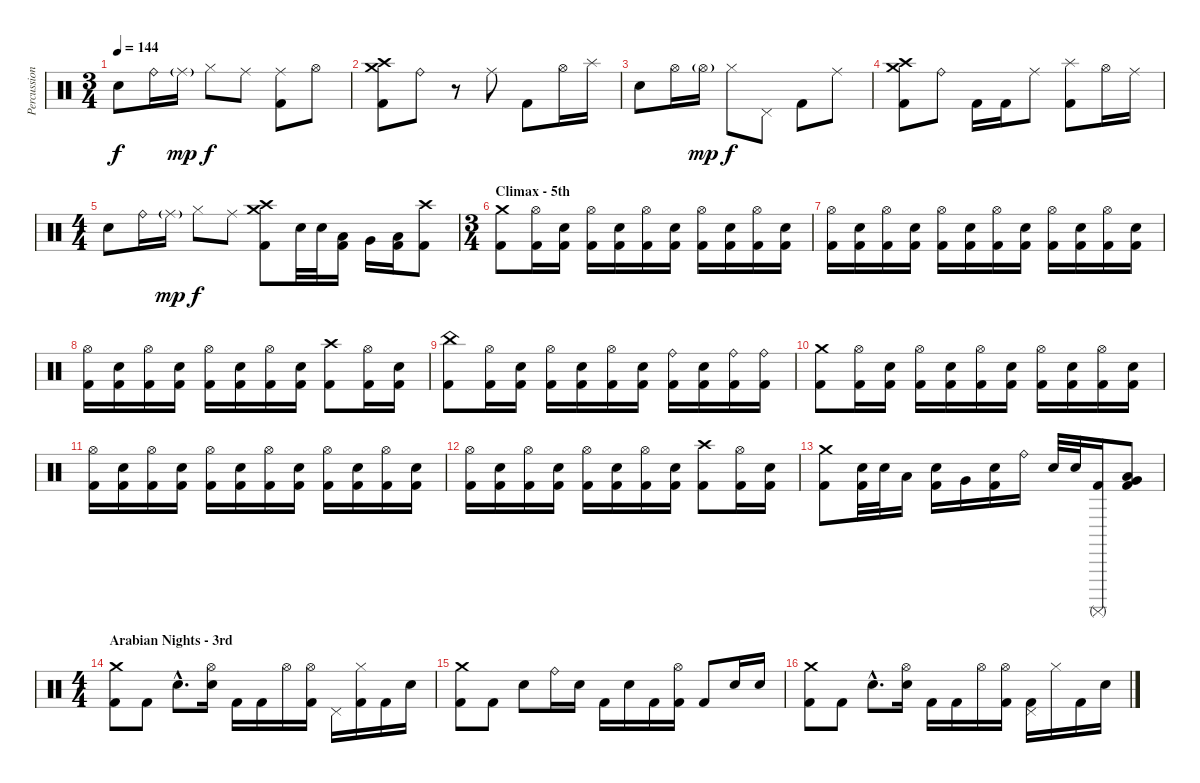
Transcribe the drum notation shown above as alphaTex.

\track ("Percussion" "Percussion") {instrument percussion}
\staff {score}
\articulation defaults
\ts (3 4)
\tempo 144
\clef neutral
\ks c "Electric Snare (hit)".8{dy f} "Ride (bell)".16 "Ride (middle)"{g}.16{dy mp} "Hi-Hat (closed)".8{dy f} "Ride (middle)".8
("Ride (middle)" "Kick (hit) 2").8 "Hi-Hat (open)".8 |
("Crash high (hit)" "Crash medium (hit)" "Kick (hit) 2").8 "Ride (bell)".8 r.8 "Ride (middle)".8 "Kick (hit) 2".8 "Hi-Hat (open)".16 "Splash (hit)".16 |
"Electric Snare (hit)".8 "Hi-Hat (open)".16 "Hi-Hat (open)"{g}.16{dy mp} "Hi-Hat (closed)".8{dy f} "Pedal Hi-Hat (hit)".8 "Kick (hit) 2".8 "Ride (middle)".8 |
("Crash high (hit)" "Crash medium (hit)" "Kick (hit) 2").8 "Ride (bell)".8 "Kick (hit) 2".16 "Kick (hit) 2".16 "Ride (middle)".8 ("Splash (hit)" "Kick (hit) 2").8 "Hi-Hat (open)".16 "Ride (middle)".16 |
\ts (4 4)
"Electric Snare (hit)".8 "Ride (bell)".16 "Ride (middle)"{g}.16{dy mp} "Hi-Hat (closed)".8{dy f} "Ride (middle)".8 ("Crash medium (hit)" "Crash high (hit)" "Kick (hit) 2").8 "Electric Snare (hit)".32 "Electric Snare (hit)".32 ("Low Tom (hit)" "Kick (hit) 2").16 "Very Low Tom (hit)".16 ("Low Tom (hit)" "Kick (hit) 2").16 ("Crash high (hit)" "Kick (hit) 2").8 |
\ts (3 4)
\section ("" "Climax - 5th")
("Crash medium (hit)" "Kick (hit) 2").8{balance 8} ("Hi-Hat (open)" "Kick (hit) 2").16 ("Electric Snare (hit)" "Kick (hit) 2").16 ("Hi-Hat (open)" "Kick (hit) 2").16 ("Electric Snare (hit)" "Kick (hit) 2").16 ("Hi-Hat (open)" "Kick (hit) 2").16 ("Electric Snare (hit)" "Kick (hit) 2").16 ("Hi-Hat (open)" "Kick (hit) 2").16 ("Electric Snare (hit)" "Kick (hit) 2").16 ("Hi-Hat (open)" "Kick (hit) 2").16 ("Electric Snare (hit)" "Kick (hit) 2").16 |
("Hi-Hat (open)" "Kick (hit) 2").16 ("Electric Snare (hit)" "Kick (hit) 2").16 ("Hi-Hat (open)" "Kick (hit) 2").16 ("Electric Snare (hit)" "Kick (hit) 2").16 ("Hi-Hat (open)" "Kick (hit) 2").16 ("Electric Snare (hit)" "Kick (hit) 2").16 ("Hi-Hat (open)" "Kick (hit) 2").16 ("Electric Snare (hit)" "Kick (hit) 2").16 ("Hi-Hat (open)" "Kick (hit) 2").16 ("Electric Snare (hit)" "Kick (hit) 2").16 ("Hi-Hat (open)" "Kick (hit) 2").16 ("Electric Snare (hit)" "Kick (hit) 2").16 |
("Hi-Hat (open)" "Kick (hit) 2").16 ("Electric Snare (hit)" "Kick (hit) 2").16 ("Hi-Hat (open)" "Kick (hit) 2").16 ("Electric Snare (hit)" "Kick (hit) 2").16 ("Hi-Hat (open)" "Kick (hit) 2").16 ("Electric Snare (hit)" "Kick (hit) 2").16 ("Hi-Hat (open)" "Kick (hit) 2").16 ("Electric Snare (hit)" "Kick (hit) 2").16 ("Crash high (hit)" "Kick (hit) 2").8 ("Hi-Hat (open)" "Kick (hit) 2").16 ("Electric Snare (hit)" "Kick (hit) 2").16 |
("China (hit)" "Kick (hit) 2").8 ("Hi-Hat (open)" "Kick (hit) 2").16 ("Electric Snare (hit)" "Kick (hit) 2").16 ("Hi-Hat (open)" "Kick (hit) 2").16 ("Electric Snare (hit)" "Kick (hit) 2").16 ("Hi-Hat (open)" "Kick (hit) 2").16 ("Electric Snare (hit)" "Kick (hit) 2").16 ("Ride (bell)" "Kick (hit) 2").16 ("Electric Snare (hit)" "Kick (hit) 2").16 ("Ride (bell)" "Kick (hit) 2").16 ("Ride (bell)" "Kick (hit) 2").16 |
("Crash medium (hit)" "Kick (hit) 2").8 ("Hi-Hat (open)" "Kick (hit) 2").16 ("Electric Snare (hit)" "Kick (hit) 2").16 ("Hi-Hat (open)" "Kick (hit) 2").16 ("Electric Snare (hit)" "Kick (hit) 2").16 ("Hi-Hat (open)" "Kick (hit) 2").16 ("Electric Snare (hit)" "Kick (hit) 2").16 ("Hi-Hat (open)" "Kick (hit) 2").16 ("Electric Snare (hit)" "Kick (hit) 2").16 ("Hi-Hat (open)" "Kick (hit) 2").16 ("Electric Snare (hit)" "Kick (hit) 2").16 |
("Hi-Hat (open)" "Kick (hit) 2").16 ("Electric Snare (hit)" "Kick (hit) 2").16 ("Hi-Hat (open)" "Kick (hit) 2").16 ("Electric Snare (hit)" "Kick (hit) 2").16 ("Hi-Hat (open)" "Kick (hit) 2").16 ("Electric Snare (hit)" "Kick (hit) 2").16 ("Hi-Hat (open)" "Kick (hit) 2").16 ("Electric Snare (hit)" "Kick (hit) 2").16 ("Hi-Hat (open)" "Kick (hit) 2").16 ("Electric Snare (hit)" "Kick (hit) 2").16 ("Hi-Hat (open)" "Kick (hit) 2").16 ("Electric Snare (hit)" "Kick (hit) 2").16 |
("Hi-Hat (open)" "Kick (hit) 2").16 ("Electric Snare (hit)" "Kick (hit) 2").16 ("Hi-Hat (open)" "Kick (hit) 2").16 ("Electric Snare (hit)" "Kick (hit) 2").16 ("Hi-Hat (open)" "Kick (hit) 2").16 ("Electric Snare (hit)" "Kick (hit) 2").16 ("Hi-Hat (open)" "Kick (hit) 2").16 ("Electric Snare (hit)" "Kick (hit) 2").16 ("Crash high (hit)" "Kick (hit) 2").8 ("Hi-Hat (open)" "Kick (hit) 2").16 ("Electric Snare (hit)" "Kick (hit) 2").16 |
("Crash medium (hit)" "Kick (hit) 2").8 ("Electric Snare (hit)" "Kick (hit) 2").32 "Electric Snare (hit)".32 "Low Tom (hit)".16 ("Electric Snare (hit)" "Kick (hit) 2").16 "Very Low Tom (hit)".16 ("Electric Snare (hit)" "Kick (hit) 2").16 "Ride (bell)".16 "Electric Snare (hit)".32 "Electric Snare (hit)".32 ("Surdo (mute)" "Kick (hit) 2").16 ("Low Tom (hit)" "Very Low Tom (hit)" "Kick (hit) 2").8 |
\ts (4 4)
\section ("" "Arabian Nights - 3rd ")
("Crash medium (hit)" "Kick (hit) 2").8 "Kick (hit) 2".8 "Electric Snare (hit)"{hac}.8{d} ("Hi-Hat (open)" "Electric Snare (hit)").16 "Kick (hit) 2".16 "Kick (hit) 2".16 "Hi-Hat (open)".16 ("Hi-Hat (open)" "Kick (hit) 2").16 "Pedal Hi-Hat (hit)".16 ("Hi-Hat (closed)" "Kick (hit) 2").16 "Kick (hit) 2".16 "Electric Snare (hit)".16 |
("Crash medium (hit)" "Kick (hit) 2").8 "Kick (hit) 2".8 "Electric Snare (hit)".8 "Ride (bell)".16 "Electric Snare (hit)".16 "Kick (hit) 2".16 "Electric Snare (hit)".16 "Kick (hit) 2".16 ("Hi-Hat (open)" "Kick (hit) 2").16 "Kick (hit) 2".8 "Electric Snare (hit)".16 "Electric Snare (hit)".16 |
("Crash medium (hit)" "Kick (hit) 2").8 "Kick (hit) 2".8 "Electric Snare (hit)"{hac}.8{d} ("Hi-Hat (open)" "Electric Snare (hit)").16 "Kick (hit) 2".16 "Kick (hit) 2".16 "Hi-Hat (open)".16 ("Hi-Hat (open)" "Kick (hit) 2").16 ("Pedal Hi-Hat (hit)" "Kick (hit) 2").16 "Hi-Hat (closed)".16 "Kick (hit) 2".16 "Electric Snare (hit)".16
